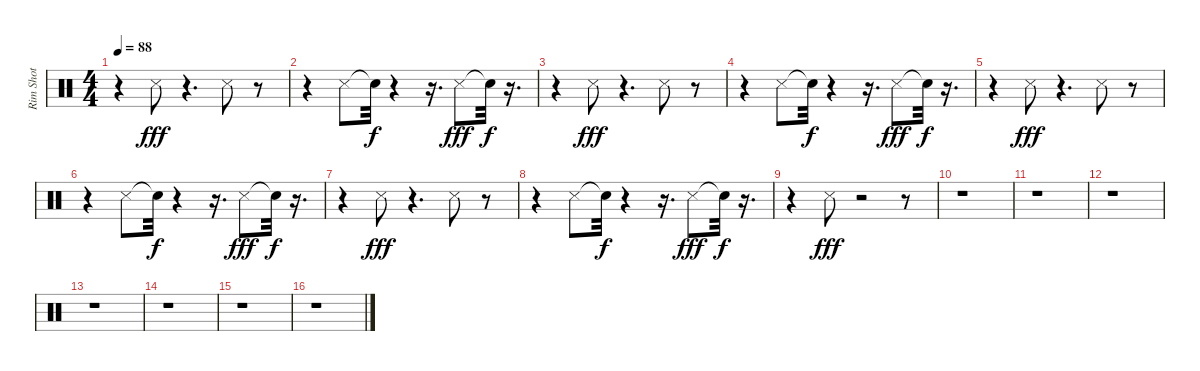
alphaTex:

\track ("Rim Shot" "Rim Shot") {instrument percussion}
\staff {score}
\articulation defaults
\ts (4 4)
\tempo 88
\clef neutral
\ks c
r.4{dy f} "Snare (side stick) 3".8{dy fff} r.4{d} "Snare (side stick) 3".8 r.8 |
r.4 "Snare (side stick) 3".8 "Snare (hit)"{t}.32{dy f} r.4 r.16{d} "Snare (side stick) 3".8{dy fff} "Snare (hit)"{t}.32{dy f} r.16{d} |
r.4 "Snare (side stick) 3".8{dy fff} r.4{d} "Snare (side stick) 3".8 r.8 |
r.4 "Snare (side stick) 3".8 "Snare (hit)"{t}.32{dy f} r.4 r.16{d} "Snare (side stick) 3".8{dy fff} "Snare (hit)"{t}.32{dy f} r.16{d} |
r.4 "Snare (side stick) 3".8{dy fff} r.4{d} "Snare (side stick) 3".8 r.8 |
r.4 "Snare (side stick) 3".8 "Snare (hit)"{t}.32{dy f} r.4 r.16{d} "Snare (side stick) 3".8{dy fff} "Snare (hit)"{t}.32{dy f} r.16{d} |
r.4 "Snare (side stick) 3".8{dy fff} r.4{d} "Snare (side stick) 3".8 r.8 |
r.4 "Snare (side stick) 3".8 "Snare (hit)"{t}.32{dy f} r.4 r.16{d} "Snare (side stick) 3".8{dy fff} "Snare (hit)"{t}.32{dy f} r.16{d} |
r.4 "Snare (side stick) 3".8{dy fff} r.2 r.8 |
r.1 |
r.1 |
r.1 |
r.1 |
r.1 |
r.1 |
r.1
